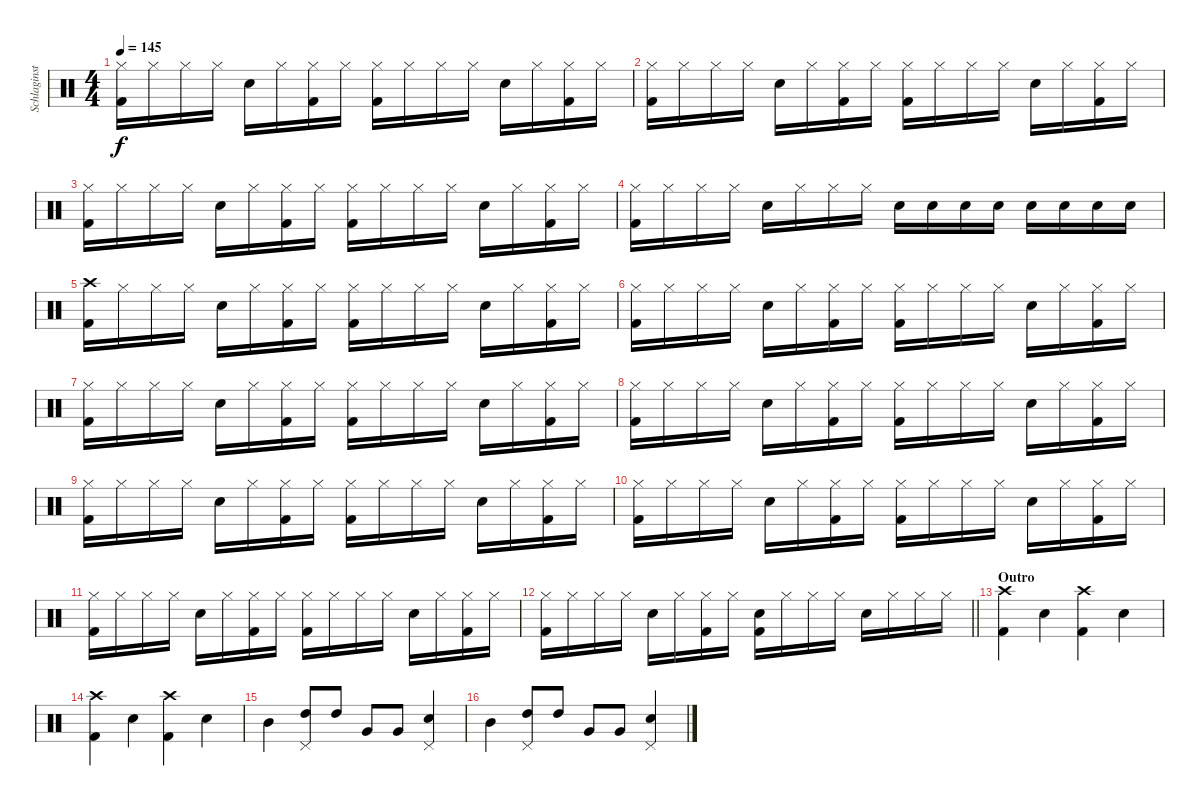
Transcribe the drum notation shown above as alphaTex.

\track ("Schlaginstrumente - Auswahl" "Schlaginst") {instrument percussion}
\staff {score}
\articulation defaults
\ts (4 4)
\tempo 145
\clef neutral
\ks c
("Hi-Hat (closed)" "Kick (hit) 2").16{dy f} "Hi-Hat (closed)".16 "Hi-Hat (closed)".16 "Hi-Hat (closed)".16 "Electric Snare (hit)".16 "Hi-Hat (closed)".16 ("Hi-Hat (closed)" "Kick (hit) 2").16 "Hi-Hat (closed)".16 ("Hi-Hat (closed)" "Kick (hit) 2").16 "Hi-Hat (closed)".16 "Hi-Hat (closed)".16 "Hi-Hat (closed)".16 "Electric Snare (hit)".16 "Hi-Hat (closed)".16 ("Hi-Hat (closed)" "Kick (hit) 2").16 "Hi-Hat (closed)".16 |
("Hi-Hat (closed)" "Kick (hit) 2").16 "Hi-Hat (closed)".16 "Hi-Hat (closed)".16 "Hi-Hat (closed)".16 "Electric Snare (hit)".16 "Hi-Hat (closed)".16 ("Hi-Hat (closed)" "Kick (hit) 2").16 "Hi-Hat (closed)".16 ("Hi-Hat (closed)" "Kick (hit) 2").16 "Hi-Hat (closed)".16 "Hi-Hat (closed)".16 "Hi-Hat (closed)".16 "Electric Snare (hit)".16 "Hi-Hat (closed)".16 ("Hi-Hat (closed)" "Kick (hit) 2").16 "Hi-Hat (closed)".16 |
("Hi-Hat (closed)" "Kick (hit) 2").16 "Hi-Hat (closed)".16 "Hi-Hat (closed)".16 "Hi-Hat (closed)".16 "Electric Snare (hit)".16 "Hi-Hat (closed)".16 ("Hi-Hat (closed)" "Kick (hit) 2").16 "Hi-Hat (closed)".16 ("Hi-Hat (closed)" "Kick (hit) 2").16 "Hi-Hat (closed)".16 "Hi-Hat (closed)".16 "Hi-Hat (closed)".16 "Electric Snare (hit)".16 "Hi-Hat (closed)".16 ("Hi-Hat (closed)" "Kick (hit) 2").16 "Hi-Hat (closed)".16 |
("Hi-Hat (closed)" "Kick (hit) 2").16 "Hi-Hat (closed)".16 "Hi-Hat (closed)".16 "Hi-Hat (closed)".16 "Electric Snare (hit)".16 "Hi-Hat (closed)".16 "Hi-Hat (closed)".16 "Hi-Hat (closed)".16 "Electric Snare (hit)".16 "Electric Snare (hit)".16 "Electric Snare (hit)".16 "Electric Snare (hit)".16 "Electric Snare (hit)".16 "Electric Snare (hit)".16 "Electric Snare (hit)".16 "Electric Snare (hit)".16 |
("Crash high (hit)" "Kick (hit) 2").16 "Hi-Hat (closed)".16 "Hi-Hat (closed)".16 "Hi-Hat (closed)".16 "Electric Snare (hit)".16 "Hi-Hat (closed)".16 ("Hi-Hat (closed)" "Kick (hit) 2").16 "Hi-Hat (closed)".16 ("Hi-Hat (closed)" "Kick (hit) 2").16 "Hi-Hat (closed)".16 "Hi-Hat (closed)".16 "Hi-Hat (closed)".16 "Electric Snare (hit)".16 "Hi-Hat (closed)".16 ("Hi-Hat (closed)" "Kick (hit) 2").16 "Hi-Hat (closed)".16 |
("Hi-Hat (closed)" "Kick (hit) 2").16 "Hi-Hat (closed)".16 "Hi-Hat (closed)".16 "Hi-Hat (closed)".16 "Electric Snare (hit)".16 "Hi-Hat (closed)".16 ("Hi-Hat (closed)" "Kick (hit) 2").16 "Hi-Hat (closed)".16 ("Hi-Hat (closed)" "Kick (hit) 2").16 "Hi-Hat (closed)".16 "Hi-Hat (closed)".16 "Hi-Hat (closed)".16 "Electric Snare (hit)".16 "Hi-Hat (closed)".16 ("Hi-Hat (closed)" "Kick (hit) 2").16 "Hi-Hat (closed)".16 |
("Hi-Hat (closed)" "Kick (hit) 2").16 "Hi-Hat (closed)".16 "Hi-Hat (closed)".16 "Hi-Hat (closed)".16 "Electric Snare (hit)".16 "Hi-Hat (closed)".16 ("Hi-Hat (closed)" "Kick (hit) 2").16 "Hi-Hat (closed)".16 ("Hi-Hat (closed)" "Kick (hit) 2").16 "Hi-Hat (closed)".16 "Hi-Hat (closed)".16 "Hi-Hat (closed)".16 "Electric Snare (hit)".16 "Hi-Hat (closed)".16 ("Hi-Hat (closed)" "Kick (hit) 2").16 "Hi-Hat (closed)".16 |
("Hi-Hat (closed)" "Kick (hit) 2").16 "Hi-Hat (closed)".16 "Hi-Hat (closed)".16 "Hi-Hat (closed)".16 "Electric Snare (hit)".16 "Hi-Hat (closed)".16 ("Hi-Hat (closed)" "Kick (hit) 2").16 "Hi-Hat (closed)".16 ("Hi-Hat (closed)" "Kick (hit) 2").16 "Hi-Hat (closed)".16 "Hi-Hat (closed)".16 "Hi-Hat (closed)".16 "Electric Snare (hit)".16 "Hi-Hat (closed)".16 ("Hi-Hat (closed)" "Kick (hit) 2").16 "Hi-Hat (closed)".16 |
("Hi-Hat (closed)" "Kick (hit) 2").16 "Hi-Hat (closed)".16 "Hi-Hat (closed)".16 "Hi-Hat (closed)".16 "Electric Snare (hit)".16 "Hi-Hat (closed)".16 ("Hi-Hat (closed)" "Kick (hit) 2").16 "Hi-Hat (closed)".16 ("Hi-Hat (closed)" "Kick (hit) 2").16 "Hi-Hat (closed)".16 "Hi-Hat (closed)".16 "Hi-Hat (closed)".16 "Electric Snare (hit)".16 "Hi-Hat (closed)".16 ("Hi-Hat (closed)" "Kick (hit) 2").16 "Hi-Hat (closed)".16 |
("Hi-Hat (closed)" "Kick (hit) 2").16 "Hi-Hat (closed)".16 "Hi-Hat (closed)".16 "Hi-Hat (closed)".16 "Electric Snare (hit)".16 "Hi-Hat (closed)".16 ("Hi-Hat (closed)" "Kick (hit) 2").16 "Hi-Hat (closed)".16 ("Hi-Hat (closed)" "Kick (hit) 2").16 "Hi-Hat (closed)".16 "Hi-Hat (closed)".16 "Hi-Hat (closed)".16 "Electric Snare (hit)".16 "Hi-Hat (closed)".16 ("Hi-Hat (closed)" "Kick (hit) 2").16 "Hi-Hat (closed)".16 |
("Hi-Hat (closed)" "Kick (hit) 2").16 "Hi-Hat (closed)".16 "Hi-Hat (closed)".16 "Hi-Hat (closed)".16 "Electric Snare (hit)".16 "Hi-Hat (closed)".16 ("Hi-Hat (closed)" "Kick (hit) 2").16 "Hi-Hat (closed)".16 ("Hi-Hat (closed)" "Kick (hit) 2").16 "Hi-Hat (closed)".16 "Hi-Hat (closed)".16 "Hi-Hat (closed)".16 "Electric Snare (hit)".16 "Hi-Hat (closed)".16 ("Hi-Hat (closed)" "Kick (hit) 2").16 "Hi-Hat (closed)".16 |
\barLineRight lightlight
("Hi-Hat (closed)" "Kick (hit) 2").16 "Hi-Hat (closed)".16 "Hi-Hat (closed)".16 "Hi-Hat (closed)".16 "Electric Snare (hit)".16 "Hi-Hat (closed)".16 ("Hi-Hat (closed)" "Kick (hit) 2").16 "Hi-Hat (closed)".16 ("Electric Snare (hit)" "Kick (hit) 2").16 "Hi-Hat (closed)".16 "Hi-Hat (closed)".16 "Hi-Hat (closed)".16 "Electric Snare (hit)".16 "Hi-Hat (closed)".16 "Hi-Hat (closed)".16 "Hi-Hat (closed)".16 |
\section ("" "Outro")
("Crash high (hit)" "Kick (hit) 2").4 "Electric Snare (hit)".4 ("Crash high (hit)" "Kick (hit) 2").4 "Electric Snare (hit)".4 |
("Crash high (hit)" "Kick (hit) 2").4 "Electric Snare (hit)".4 ("Crash high (hit)" "Kick (hit) 2").4 "Electric Snare (hit)".4 |
"Mid Tom (hit)".4 ("Pedal Hi-Hat (hit)" "High Tom (hit)").8 "High Tom (hit)".8 "Very Low Tom (hit)".8 "Very Low Tom (hit)".8 ("Pedal Hi-Hat (hit)" "Electric Snare (hit)").4 |
"Mid Tom (hit)".4 ("Pedal Hi-Hat (hit)" "High Tom (hit)").8 "High Tom (hit)".8 "Very Low Tom (hit)".8 "Very Low Tom (hit)".8 ("Pedal Hi-Hat (hit)" "Electric Snare (hit)").4
